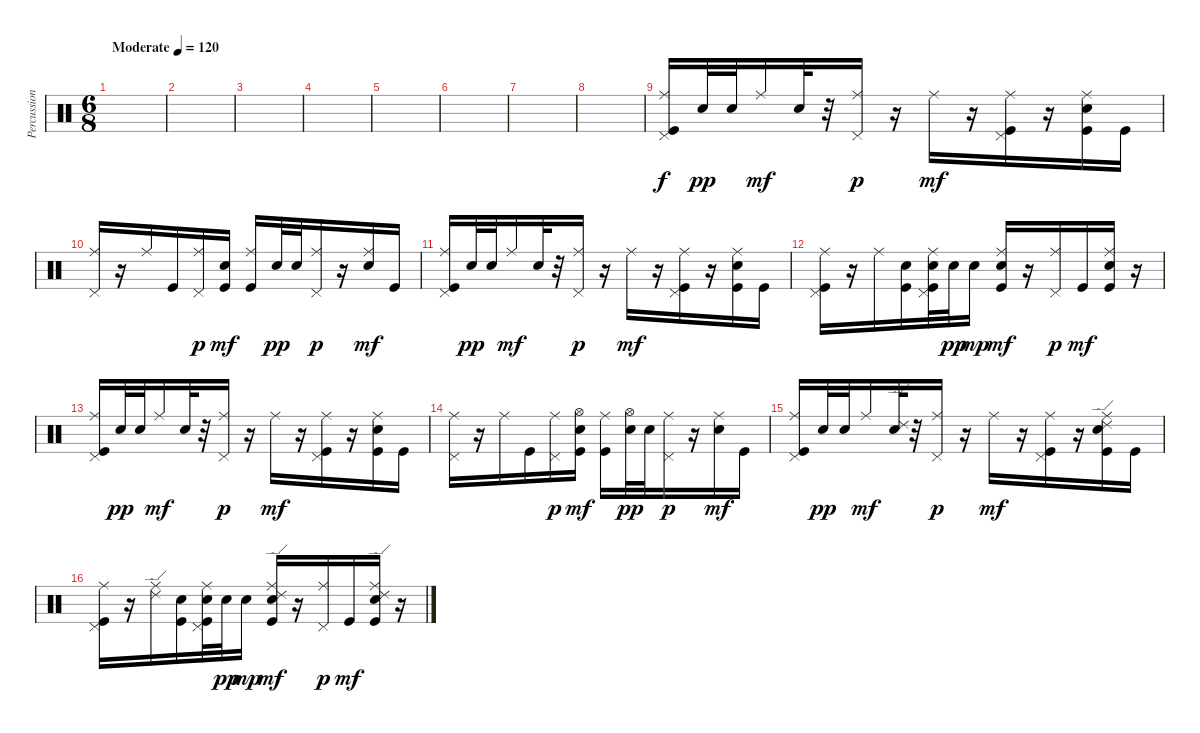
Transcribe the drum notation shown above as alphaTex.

\track ("Percussion" "Percussion") {instrument percussion}
\staff {score}
\articulation defaults
\ts (6 8)
\tempo (120 "Moderate")
\clef neutral
\ks c
|
|
|
|
|
|
|
|
("Ride (middle)" "Pedal Hi-Hat (hit)" "Kick (hit)").16 "Snare (hit) 2".32{dy pp} "Snare (hit) 2".32 "Ride (middle)".16{dy mf} "Snare (hit) 2".32 r.32 ("Pedal Hi-Hat (hit)" "Ride (middle)").16{dy p} r.16 "Ride (middle)".16{dy mf} r.16 ("Pedal Hi-Hat (hit)" "Ride (middle)" "Kick (hit)").16 r.16 ("Ride (middle)" "Snare (hit) 2" "Kick (hit)").16 "Kick (hit)".16 |
("Ride (middle)" "Pedal Hi-Hat (hit)").16 r.16 "Ride (middle)".16 "Kick (hit)".16 ("Pedal Hi-Hat (hit)" "Ride (middle)").16{dy p} ("Snare (hit) 2" "Kick (hit)").16{dy mf} ("Ride (middle)" "Kick (hit)").16 "Snare (hit) 2".32{dy pp} "Snare (hit) 2".32 ("Pedal Hi-Hat (hit)" "Ride (middle)").16{dy p} r.16 ("Ride (middle)" "Snare (hit) 2").16{dy mf} "Kick (hit)".16 |
("Ride (middle)" "Pedal Hi-Hat (hit)" "Kick (hit)").16 "Snare (hit) 2".32{dy pp} "Snare (hit) 2".32 "Ride (middle)".16{dy mf} "Snare (hit) 2".32 r.32 ("Pedal Hi-Hat (hit)" "Ride (middle)").16{dy p} r.16 "Ride (middle)".16{dy mf} r.16 ("Pedal Hi-Hat (hit)" "Ride (middle)" "Kick (hit)").16 r.16 ("Ride (middle)" "Snare (hit) 2" "Kick (hit)").16 "Kick (hit)".16 |
("Ride (middle)" "Pedal Hi-Hat (hit)" "Kick (hit)").16 r.16 "Ride (middle)".16 ("Snare (hit) 2" "Kick (hit)").16 ("Pedal Hi-Hat (hit)" "Ride (middle)" "Snare (hit) 2" "Kick (hit)").32 "Snare (hit) 2".32{dy pp} "Snare (hit) 2".16{dy mp} ("Ride (middle)" "Snare (hit) 2" "Kick (hit)").16{dy mf} r.16 ("Pedal Hi-Hat (hit)" "Ride (middle)").16{dy p} "Kick (hit)".16{dy mf} ("Ride (middle)" "Snare (hit) 2" "Kick (hit)").16 r.16 |
("Ride (middle)" "Pedal Hi-Hat (hit)" "Kick (hit)").16 "Snare (hit) 2".32{dy pp} "Snare (hit) 2".32 "Ride (middle)".16{dy mf} "Snare (hit) 2".32 r.32 ("Pedal Hi-Hat (hit)" "Ride (middle)").16{dy p} r.16 "Ride (middle)".16{dy mf} r.16 ("Pedal Hi-Hat (hit)" "Ride (middle)" "Kick (hit)").16 r.16 ("Ride (middle)" "Snare (hit) 2" "Kick (hit)").16 "Kick (hit)".16 |
("Ride (middle)" "Pedal Hi-Hat (hit)").16 r.16 "Ride (middle)".16 "Kick (hit)".16 ("Pedal Hi-Hat (hit)" "Ride (middle)").16{dy p} ("Hi-Hat (open)" "Snare (hit) 2" "Kick (hit)").16{dy mf} ("Ride (middle)" "Kick (hit)").16 ("Hi-Hat (open)" "Snare (hit) 2").32{dy pp} "Snare (hit) 2".32 ("Pedal Hi-Hat (hit)" "Ride (middle)").16{dy p} r.16 ("Ride (middle)" "Snare (hit) 2").16{dy mf} "Kick (hit)".16 |
("Ride (middle)" "Pedal Hi-Hat (hit)" "Kick (hit)").16 "Snare (hit) 2".32{dy pp} "Snare (hit) 2".32 "Ride (middle)".16{dy mf} ("Ride (edge) 2" "Snare (hit) 2").32 r.32 ("Pedal Hi-Hat (hit)" "Ride (middle)").16{dy p} r.16 "Ride (middle)".16{dy mf} r.16 ("Pedal Hi-Hat (hit)" "Ride (middle)" "Kick (hit)").16 r.16 ("Ride (edge) 2" "Ride (middle)" "Snare (hit) 2" "Kick (hit)").16 "Kick (hit)".16 |
("Ride (middle)" "Pedal Hi-Hat (hit)" "Kick (hit)").16 r.16 ("Ride (middle)" "Ride (edge) 2").16 ("Snare (hit) 2" "Kick (hit)").16 ("Pedal Hi-Hat (hit)" "Ride (middle)" "Snare (hit) 2" "Kick (hit)").32 "Snare (hit) 2".32{dy pp} "Snare (hit) 2".16{dy mp} ("Ride (edge) 2" "Ride (middle)" "Snare (hit) 2" "Kick (hit)").16{dy mf} r.16 ("Pedal Hi-Hat (hit)" "Ride (middle)").16{dy p} "Kick (hit)".16{dy mf} ("Ride (edge) 2" "Ride (middle)" "Snare (hit) 2" "Kick (hit)").16 r.16
